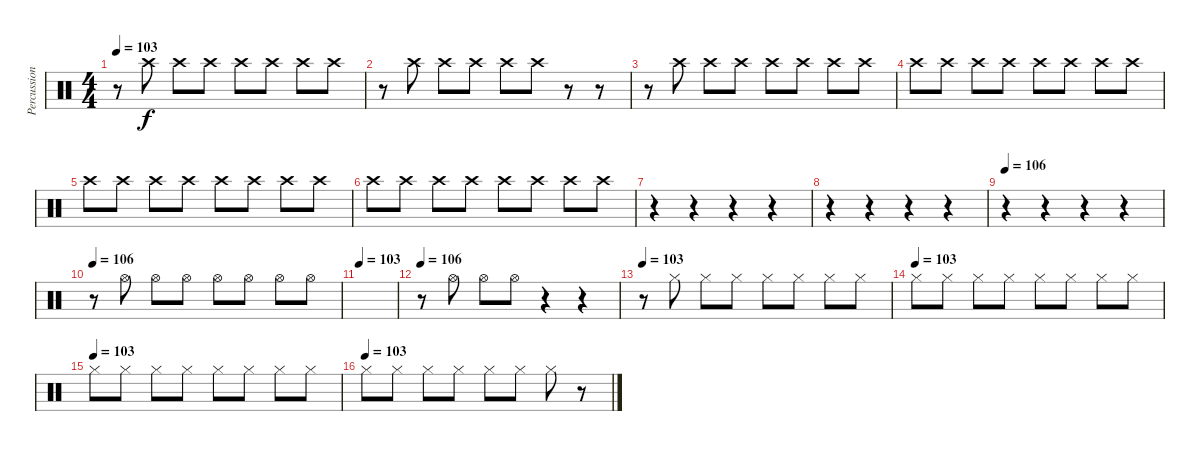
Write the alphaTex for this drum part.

\track ("Percussion2" "Percussion") {instrument percussion}
\staff {score}
\articulation defaults
\ts (4 4)
\tempo 103
\clef neutral
\ks c
r.8{dy f} "Crash high (hit)".8 "Crash high (hit)".8 "Crash high (hit)".8 "Crash high (hit)".8 "Crash high (hit)".8 "Crash high (hit)".8 "Crash high (hit)".8 |
r.8 "Crash high (hit)".8 "Crash high (hit)".8 "Crash high (hit)".8 "Crash high (hit)".8 "Crash high (hit)".8 r.8 r.8 |
r.8 "Crash high (hit)".8 "Crash high (hit)".8 "Crash high (hit)".8 "Crash high (hit)".8 "Crash high (hit)".8 "Crash high (hit)".8 "Crash high (hit)".8 |
"Crash high (hit)".8 "Crash high (hit)".8 "Crash high (hit)".8 "Crash high (hit)".8 "Crash high (hit)".8 "Crash high (hit)".8 "Crash high (hit)".8 "Crash high (hit)".8 |
"Crash high (hit)".8 "Crash high (hit)".8 "Crash high (hit)".8 "Crash high (hit)".8 "Crash high (hit)".8 "Crash high (hit)".8 "Crash high (hit)".8 "Crash high (hit)".8 |
"Crash high (hit)".8 "Crash high (hit)".8 "Crash high (hit)".8 "Crash high (hit)".8 "Crash high (hit)".8 "Crash high (hit)".8 "Crash high (hit)".8 "Crash high (hit)".8 |
r.4 r.4 r.4 r.4 |
r.4 r.4 r.4 r.4 |
\tempo 106
r.4 r.4 r.4 r.4 |
\tempo 106
r.8 "Hi-Hat (open)".8 "Hi-Hat (open)".8 "Hi-Hat (open)".8 "Hi-Hat (open)".8 "Hi-Hat (open)".8 "Hi-Hat (open)".8 "Hi-Hat (open)".8 |
\tempo 103
|
\tempo 106
r.8 "Hi-Hat (open)".8 "Hi-Hat (open)".8 "Hi-Hat (open)".8 r.4 r.4 |
\tempo 103
r.8 "Hi-Hat (closed)".8 "Hi-Hat (closed)".8 "Hi-Hat (closed)".8 "Hi-Hat (closed)".8 "Hi-Hat (closed)".8 "Hi-Hat (closed)".8 "Hi-Hat (closed)".8 |
\tempo (103)
"Hi-Hat (closed)".8 "Hi-Hat (closed)".8 "Hi-Hat (closed)".8 "Hi-Hat (closed)".8 "Hi-Hat (closed)".8 "Hi-Hat (closed)".8 "Hi-Hat (closed)".8 "Hi-Hat (closed)".8 |
\tempo (103)
"Hi-Hat (closed)".8 "Hi-Hat (closed)".8 "Hi-Hat (closed)".8 "Hi-Hat (closed)".8 "Hi-Hat (closed)".8 "Hi-Hat (closed)".8 "Hi-Hat (closed)".8 "Hi-Hat (closed)".8 |
\tempo (103)
"Hi-Hat (closed)".8 "Hi-Hat (closed)".8 "Hi-Hat (closed)".8 "Hi-Hat (closed)".8 "Hi-Hat (closed)".8 "Hi-Hat (closed)".8 "Hi-Hat (closed)".8 r.8
